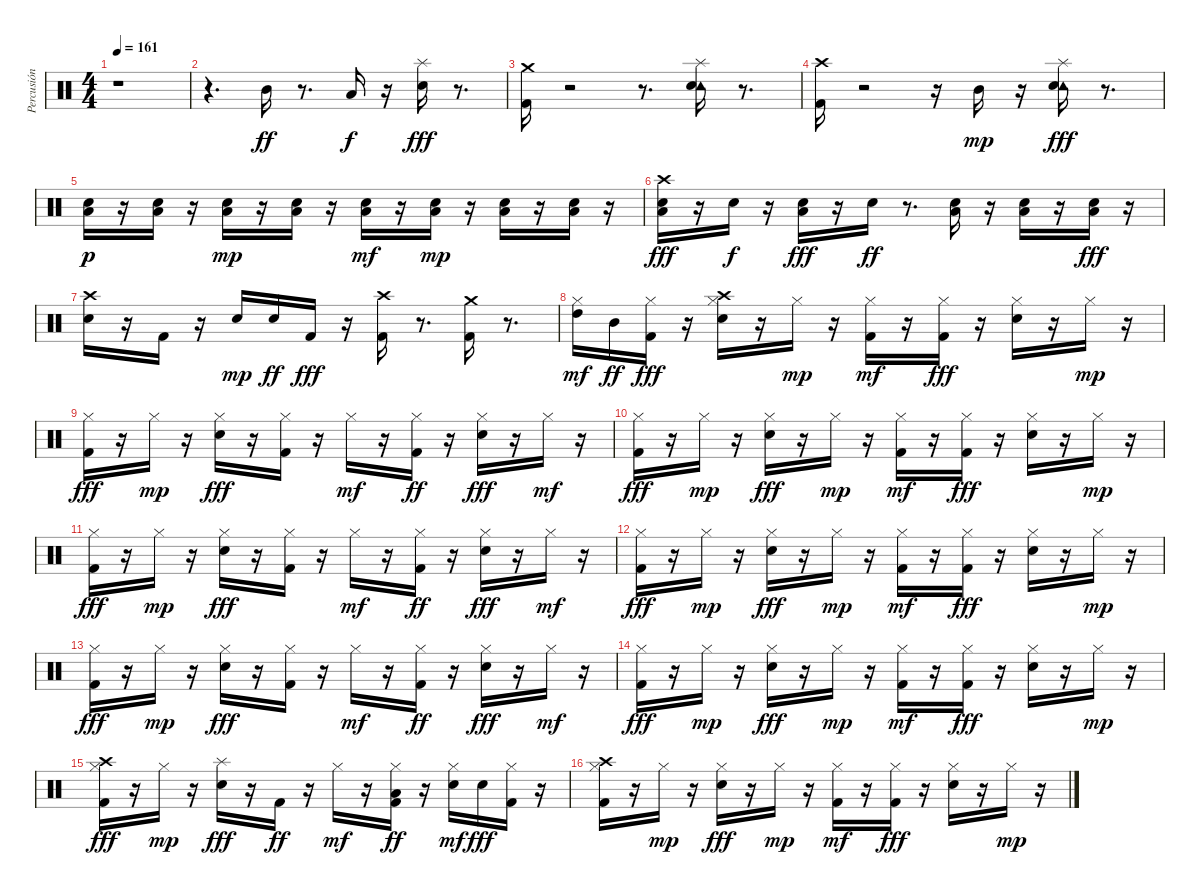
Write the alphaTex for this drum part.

\track ("Percusión" "Percusión") {instrument percussion}
\staff {score}
\articulation defaults
\ts (4 4)
\tempo 161
\clef neutral
\ks c
r.1{dy fff} |
r.4{d} "Mid Tom (hit)".16{dy ff} r.8{d} "Low Floor Tom (hit)".16{dy f} r.16 ("Splash (hit)" "Snare (hit) 2").16{dy fff} r.8{d} |
("Crash medium (hit)" "Kick (hit) 2").16 r.2 r.8{d} ("Splash (hit)" "Tambourine (hit)" "Snare (hit) 2").16 r.8{d} |
("Crash high (hit)" "Kick (hit) 2").16 r.2 r.16 "Mid Tom (hit)".16{dy mp} r.16 ("Splash (hit)" "Tambourine (hit)" "Snare (hit) 2").16{dy fff} r.8{d} |
("Low Floor Tom (hit)" "Snare (hit) 2").16{dy p} r.16 ("Low Floor Tom (hit)" "Snare (hit) 2").16 r.16 ("Low Floor Tom (hit)" "Snare (hit) 2").16{dy mp} r.16 ("Low Floor Tom (hit)" "Snare (hit) 2").16 r.16 ("Low Floor Tom (hit)" "Snare (hit) 2").16{dy mf} r.16 ("Low Floor Tom (hit)" "Snare (hit) 2").16{dy mp} r.16 ("Low Floor Tom (hit)" "Snare (hit) 2").16 r.16 ("Low Floor Tom (hit)" "Snare (hit) 2").16 r.16 |
("Crash high (hit)" "Low Floor Tom (hit)" "Snare (hit) 2").16{dy fff} r.16 "Snare (hit) 2".16{dy f} r.16 ("Low Floor Tom (hit)" "Snare (hit) 2").16{dy fff} r.16 "Snare (hit) 2".16{dy ff} r.8{d} ("Low Floor Tom (hit)" "Snare (hit) 2").16 r.16 ("Low Floor Tom (hit)" "Snare (hit) 2").16 r.16 ("Low Floor Tom (hit)" "Snare (hit) 2").16{dy fff} r.16 |
("Crash high (hit)" "Snare (hit) 2").16 r.16 "Kick (hit) 2".16 r.16 "Snare (hit) 2".16{dy mp} "Snare (hit) 2".16{dy ff} "Kick (hit) 2".16{dy fff} r.16 ("Crash high (hit)" "Kick (hit) 2").16 r.8{d} ("Crash medium (hit)" "Kick (hit) 2").16 r.8{d} |
("High Tom (hit)" "Hi-Hat (closed)").16{dy mf} "Mid Tom (hit)".16{dy ff} ("Hi-Hat (closed)" "Kick (hit) 2").16{dy fff} r.16 ("Hi-Hat (closed)" "Crash high (hit)" "Snare (hit) 2").16 r.16 "Hi-Hat (closed)".16{dy mp} r.16 ("Hi-Hat (closed)" "Kick (hit) 2").16{dy mf} r.16 ("Hi-Hat (closed)" "Kick (hit) 2").16{dy fff} r.16 ("Hi-Hat (closed)" "Snare (hit) 2").16 r.16 "Hi-Hat (closed)".16{dy mp} r.16 |
("Hi-Hat (closed)" "Kick (hit) 2").16{dy fff} r.16 "Hi-Hat (closed)".16{dy mp} r.16 ("Hi-Hat (closed)" "Snare (hit) 2").16{dy fff} r.16 ("Hi-Hat (closed)" "Kick (hit) 2").16 r.16 "Hi-Hat (closed)".16{dy mf} r.16 ("Hi-Hat (closed)" "Kick (hit) 2").16{dy ff} r.16 ("Hi-Hat (closed)" "Snare (hit) 2").16{dy fff} r.16 "Hi-Hat (closed)".16{dy mf} r.16 |
("Hi-Hat (closed)" "Kick (hit) 2").16{dy fff} r.16 "Hi-Hat (closed)".16{dy mp} r.16 ("Hi-Hat (closed)" "Snare (hit) 2").16{dy fff} r.16 "Hi-Hat (closed)".16{dy mp} r.16 ("Hi-Hat (closed)" "Kick (hit) 2").16{dy mf} r.16 ("Hi-Hat (closed)" "Kick (hit) 2").16{dy fff} r.16 ("Hi-Hat (closed)" "Snare (hit) 2").16 r.16 "Hi-Hat (closed)".16{dy mp} r.16 |
("Hi-Hat (closed)" "Kick (hit) 2").16{dy fff} r.16 "Hi-Hat (closed)".16{dy mp} r.16 ("Hi-Hat (closed)" "Snare (hit) 2").16{dy fff} r.16 ("Hi-Hat (closed)" "Kick (hit) 2").16 r.16 "Hi-Hat (closed)".16{dy mf} r.16 ("Hi-Hat (closed)" "Kick (hit) 2").16{dy ff} r.16 ("Hi-Hat (closed)" "Snare (hit) 2").16{dy fff} r.16 "Hi-Hat (closed)".16{dy mf} r.16 |
("Hi-Hat (closed)" "Kick (hit) 2").16{dy fff} r.16 "Hi-Hat (closed)".16{dy mp} r.16 ("Hi-Hat (closed)" "Snare (hit) 2").16{dy fff} r.16 "Hi-Hat (closed)".16{dy mp} r.16 ("Hi-Hat (closed)" "Kick (hit) 2").16{dy mf} r.16 ("Hi-Hat (closed)" "Kick (hit) 2").16{dy fff} r.16 ("Hi-Hat (closed)" "Snare (hit) 2").16 r.16 "Hi-Hat (closed)".16{dy mp} r.16 |
("Hi-Hat (closed)" "Kick (hit) 2").16{dy fff} r.16 "Hi-Hat (closed)".16{dy mp} r.16 ("Hi-Hat (closed)" "Snare (hit) 2").16{dy fff} r.16 ("Hi-Hat (closed)" "Kick (hit) 2").16 r.16 "Hi-Hat (closed)".16{dy mf} r.16 ("Hi-Hat (closed)" "Kick (hit) 2").16{dy ff} r.16 ("Hi-Hat (closed)" "Snare (hit) 2").16{dy fff} r.16 "Hi-Hat (closed)".16{dy mf} r.16 |
("Hi-Hat (closed)" "Kick (hit) 2").16{dy fff} r.16 "Hi-Hat (closed)".16{dy mp} r.16 ("Hi-Hat (closed)" "Snare (hit) 2").16{dy fff} r.16 "Hi-Hat (closed)".16{dy mp} r.16 ("Hi-Hat (closed)" "Kick (hit) 2").16{dy mf} r.16 ("Hi-Hat (closed)" "Kick (hit) 2").16{dy fff} r.16 ("Hi-Hat (closed)" "Snare (hit) 2").16 r.16 "Hi-Hat (closed)".16{dy mp} r.16 |
("Hi-Hat (closed)" "Crash high (hit)" "Kick (hit) 2").16{dy fff} r.16 "Hi-Hat (closed)".16{dy mp} r.16 ("Splash (hit)" "Snare (hit) 2").16{dy fff} r.16 "Kick (hit) 2".16{dy ff} r.16 "Hi-Hat (closed)".16{dy mf} r.16 ("Hi-Hat (closed)" "Kick (hit) 2" "Low Tom (hit)").16{dy ff} r.16 ("Hi-Hat (closed)" "Snare (hit) 2").16{dy mf} "Snare (hit) 2".16{dy fff} ("Hi-Hat (closed)" "Kick (hit) 2").16 r.16 |
("Hi-Hat (closed)" "Crash high (hit)" "Kick (hit) 2").16 r.16 "Hi-Hat (closed)".16{dy mp} r.16 ("Hi-Hat (closed)" "Snare (hit) 2").16{dy fff} r.16 "Hi-Hat (closed)".16{dy mp} r.16 ("Hi-Hat (closed)" "Kick (hit) 2").16{dy mf} r.16 ("Hi-Hat (closed)" "Kick (hit) 2").16{dy fff} r.16 ("Hi-Hat (closed)" "Snare (hit) 2").16 r.16 "Hi-Hat (closed)".16{dy mp} r.16
